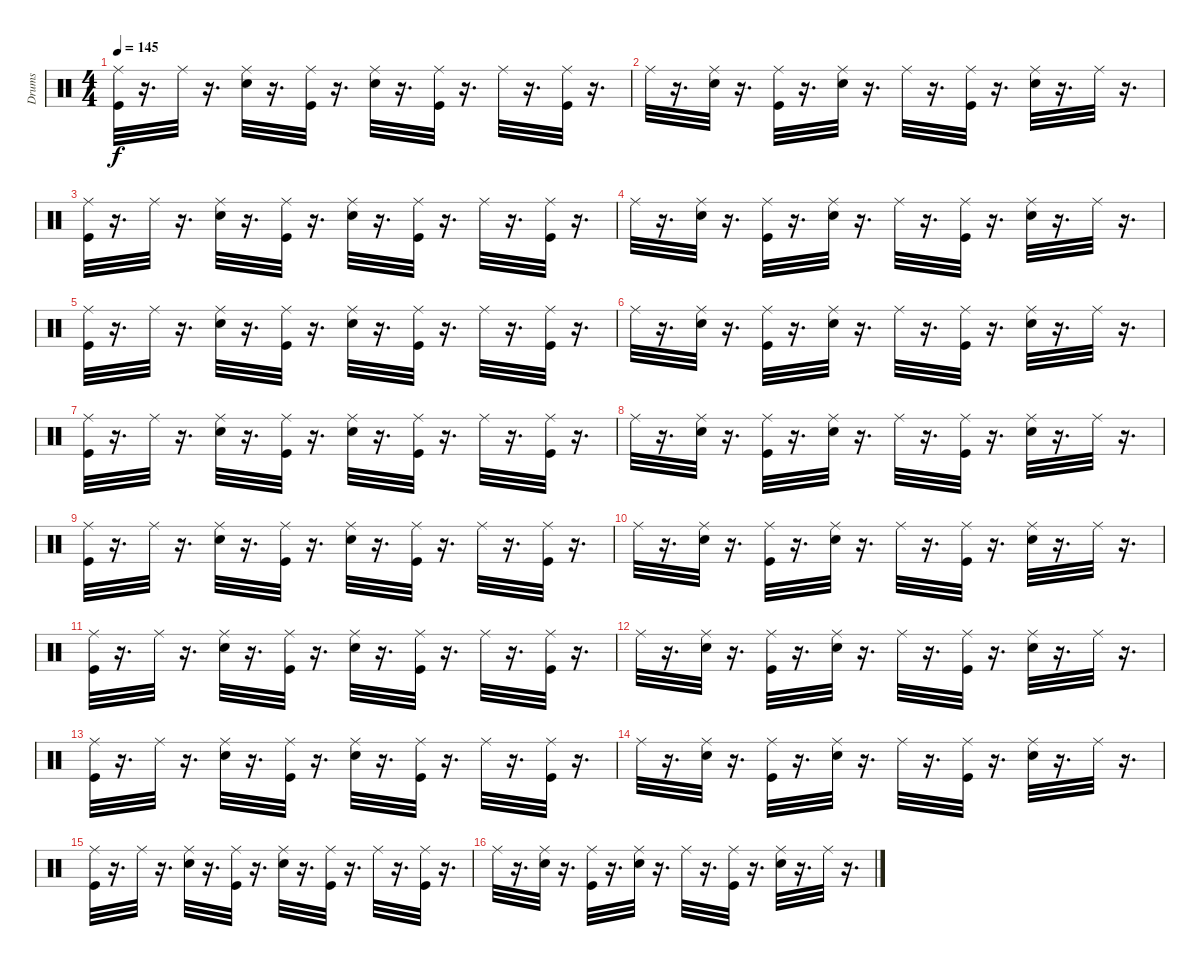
\track ("Drums" "Drums") {instrument percussion}
\staff {score}
\articulation defaults
\ts (4 4)
\tempo 145
\clef neutral
\ks c
("Ride (middle)" "Kick (hit)").32{dy f} r.16{d} "Ride (middle)".32 r.16{d} ("Snare (hit) 2" "Ride (middle)").32 r.16{d} ("Ride (middle)" "Kick (hit)").32 r.16{d} ("Snare (hit) 2" "Ride (middle)").32 r.16{d} ("Kick (hit)" "Ride (middle)").32 r.16{d} "Ride (middle)".32 r.16{d} ("Ride (middle)" "Kick (hit)").32 r.16{d} |
"Ride (middle)".32 r.16{d} ("Ride (middle)" "Snare (hit) 2").32 r.16{d} ("Ride (middle)" "Kick (hit)").32 r.16{d} ("Ride (middle)" "Snare (hit) 2").32 r.16{d} "Ride (middle)".32 r.16{d} ("Ride (middle)" "Kick (hit)").32 r.16{d} ("Ride (middle)" "Snare (hit) 2").32 r.16{d} "Ride (middle)".32 r.16{d} |
("Ride (middle)" "Kick (hit)").32 r.16{d} "Ride (middle)".32 r.16{d} ("Snare (hit) 2" "Ride (middle)").32 r.16{d} ("Ride (middle)" "Kick (hit)").32 r.16{d} ("Snare (hit) 2" "Ride (middle)").32 r.16{d} ("Kick (hit)" "Ride (middle)").32 r.16{d} "Ride (middle)".32 r.16{d} ("Ride (middle)" "Kick (hit)").32 r.16{d} |
"Ride (middle)".32 r.16{d} ("Ride (middle)" "Snare (hit) 2").32 r.16{d} ("Ride (middle)" "Kick (hit)").32 r.16{d} ("Ride (middle)" "Snare (hit) 2").32 r.16{d} "Ride (middle)".32 r.16{d} ("Ride (middle)" "Kick (hit)").32 r.16{d} ("Ride (middle)" "Snare (hit) 2").32 r.16{d} "Ride (middle)".32 r.16{d} |
("Ride (middle)" "Kick (hit)").32 r.16{d} "Ride (middle)".32 r.16{d} ("Snare (hit) 2" "Ride (middle)").32 r.16{d} ("Ride (middle)" "Kick (hit)").32 r.16{d} ("Snare (hit) 2" "Ride (middle)").32 r.16{d} ("Kick (hit)" "Ride (middle)").32 r.16{d} "Ride (middle)".32 r.16{d} ("Ride (middle)" "Kick (hit)").32 r.16{d} |
"Ride (middle)".32 r.16{d} ("Ride (middle)" "Snare (hit) 2").32 r.16{d} ("Ride (middle)" "Kick (hit)").32 r.16{d} ("Ride (middle)" "Snare (hit) 2").32 r.16{d} "Ride (middle)".32 r.16{d} ("Ride (middle)" "Kick (hit)").32 r.16{d} ("Ride (middle)" "Snare (hit) 2").32 r.16{d} "Ride (middle)".32 r.16{d} |
("Ride (middle)" "Kick (hit)").32 r.16{d} "Ride (middle)".32 r.16{d} ("Snare (hit) 2" "Ride (middle)").32 r.16{d} ("Ride (middle)" "Kick (hit)").32 r.16{d} ("Snare (hit) 2" "Ride (middle)").32 r.16{d} ("Kick (hit)" "Ride (middle)").32 r.16{d} "Ride (middle)".32 r.16{d} ("Ride (middle)" "Kick (hit)").32 r.16{d} |
"Ride (middle)".32 r.16{d} ("Ride (middle)" "Snare (hit) 2").32 r.16{d} ("Ride (middle)" "Kick (hit)").32 r.16{d} ("Ride (middle)" "Snare (hit) 2").32 r.16{d} "Ride (middle)".32 r.16{d} ("Ride (middle)" "Kick (hit)").32 r.16{d} ("Ride (middle)" "Snare (hit) 2").32 r.16{d} "Ride (middle)".32 r.16{d} |
("Kick (hit)" "Ride (middle)").32 r.16{d} "Ride (middle)".32 r.16{d} ("Snare (hit) 2" "Ride (middle)").32 r.16{d} ("Ride (middle)" "Kick (hit)").32 r.16{d} ("Snare (hit) 2" "Ride (middle)").32 r.16{d} ("Kick (hit)" "Ride (middle)").32 r.16{d} "Ride (middle)".32 r.16{d} ("Ride (middle)" "Kick (hit)").32 r.16{d} |
"Ride (middle)".32 r.16{d} ("Ride (middle)" "Snare (hit) 2").32 r.16{d} ("Ride (middle)" "Kick (hit)").32 r.16{d} ("Ride (middle)" "Snare (hit) 2").32 r.16{d} "Ride (middle)".32 r.16{d} ("Ride (middle)" "Kick (hit)").32 r.16{d} ("Ride (middle)" "Snare (hit) 2").32 r.16{d} "Ride (middle)".32 r.16{d} |
("Kick (hit)" "Ride (middle)").32 r.16{d} "Ride (middle)".32 r.16{d} ("Snare (hit) 2" "Ride (middle)").32 r.16{d} ("Ride (middle)" "Kick (hit)").32 r.16{d} ("Snare (hit) 2" "Ride (middle)").32 r.16{d} ("Kick (hit)" "Ride (middle)").32 r.16{d} "Ride (middle)".32 r.16{d} ("Ride (middle)" "Kick (hit)").32 r.16{d} |
"Ride (middle)".32 r.16{d} ("Ride (middle)" "Snare (hit) 2").32 r.16{d} ("Ride (middle)" "Kick (hit)").32 r.16{d} ("Ride (middle)" "Snare (hit) 2").32 r.16{d} "Ride (middle)".32 r.16{d} ("Ride (middle)" "Kick (hit)").32 r.16{d} ("Ride (middle)" "Snare (hit) 2").32 r.16{d} "Ride (middle)".32 r.16{d} |
("Ride (middle)" "Kick (hit)").32 r.16{d} "Ride (middle)".32 r.16{d} ("Snare (hit) 2" "Ride (middle)").32 r.16{d} ("Ride (middle)" "Kick (hit)").32 r.16{d} ("Snare (hit) 2" "Ride (middle)").32 r.16{d} ("Kick (hit)" "Ride (middle)").32 r.16{d} "Ride (middle)".32 r.16{d} ("Ride (middle)" "Kick (hit)").32 r.16{d} |
"Ride (middle)".32 r.16{d} ("Ride (middle)" "Snare (hit) 2").32 r.16{d} ("Ride (middle)" "Kick (hit)").32 r.16{d} ("Ride (middle)" "Snare (hit) 2").32 r.16{d} "Ride (middle)".32 r.16{d} ("Ride (middle)" "Kick (hit)").32 r.16{d} ("Ride (middle)" "Snare (hit) 2").32 r.16{d} "Ride (middle)".32 r.16{d} |
("Ride (middle)" "Kick (hit)").32 r.16{d} "Ride (middle)".32 r.16{d} ("Snare (hit) 2" "Ride (middle)").32 r.16{d} ("Ride (middle)" "Kick (hit)").32 r.16{d} ("Snare (hit) 2" "Ride (middle)").32 r.16{d} ("Kick (hit)" "Ride (middle)").32 r.16{d} "Ride (middle)".32 r.16{d} ("Ride (middle)" "Kick (hit)").32 r.16{d} |
"Ride (middle)".32 r.16{d} ("Ride (middle)" "Snare (hit) 2").32 r.16{d} ("Ride (middle)" "Kick (hit)").32 r.16{d} ("Ride (middle)" "Snare (hit) 2").32 r.16{d} "Ride (middle)".32 r.16{d} ("Ride (middle)" "Kick (hit)").32 r.16{d} ("Ride (middle)" "Snare (hit) 2").32 r.16{d} "Ride (middle)".32 r.16{d}
